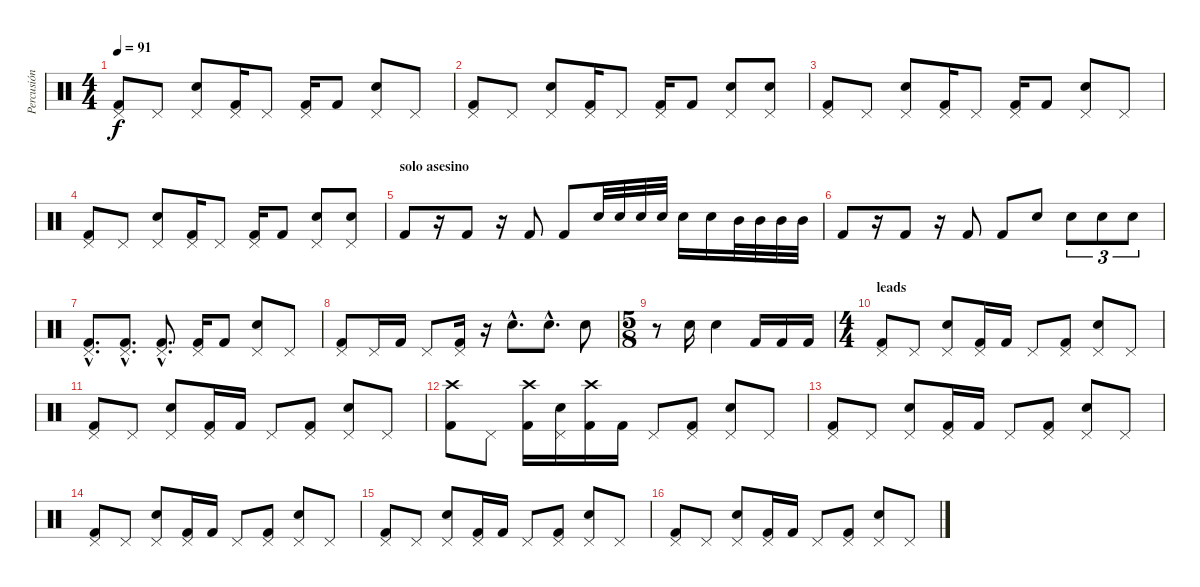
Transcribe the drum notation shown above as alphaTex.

\track ("Percusión" "Percusión") {instrument percussion}
\staff {score}
\articulation defaults
\ts (4 4)
\tempo 91
\clef neutral
\ks c
("Pedal Hi-Hat (hit)" "Kick (hit) 2").8{dy f} "Pedal Hi-Hat (hit)".8 ("Pedal Hi-Hat (hit)" "Electric Snare (hit)").8 ("Pedal Hi-Hat (hit)" "Kick (hit) 2").16 "Pedal Hi-Hat (hit)".8 ("Pedal Hi-Hat (hit)" "Kick (hit) 2").16 "Kick (hit) 2".8 ("Pedal Hi-Hat (hit)" "Electric Snare (hit)").8 "Pedal Hi-Hat (hit)".8 |
("Pedal Hi-Hat (hit)" "Kick (hit) 2").8 "Pedal Hi-Hat (hit)".8 ("Pedal Hi-Hat (hit)" "Electric Snare (hit)").8 ("Pedal Hi-Hat (hit)" "Kick (hit) 2").16 "Pedal Hi-Hat (hit)".8 ("Pedal Hi-Hat (hit)" "Kick (hit) 2").16 "Kick (hit) 2".8 ("Pedal Hi-Hat (hit)" "Electric Snare (hit)").8 ("Pedal Hi-Hat (hit)" "Electric Snare (hit)").8 |
("Pedal Hi-Hat (hit)" "Kick (hit) 2").8 "Pedal Hi-Hat (hit)".8 ("Pedal Hi-Hat (hit)" "Electric Snare (hit)").8 ("Pedal Hi-Hat (hit)" "Kick (hit) 2").16 "Pedal Hi-Hat (hit)".8 ("Pedal Hi-Hat (hit)" "Kick (hit) 2").16 "Kick (hit) 2".8 ("Pedal Hi-Hat (hit)" "Electric Snare (hit)").8 "Pedal Hi-Hat (hit)".8 |
("Pedal Hi-Hat (hit)" "Kick (hit) 2").8 "Pedal Hi-Hat (hit)".8 ("Pedal Hi-Hat (hit)" "Electric Snare (hit)").8 ("Pedal Hi-Hat (hit)" "Kick (hit) 2").16 "Pedal Hi-Hat (hit)".8 ("Pedal Hi-Hat (hit)" "Kick (hit) 2").16 "Kick (hit) 2".8 ("Pedal Hi-Hat (hit)" "Electric Snare (hit)").8 ("Pedal Hi-Hat (hit)" "Electric Snare (hit)").8 |
\section ("" "solo asesino")
"Kick (hit) 2".8 r.16 "Kick (hit) 2".8 r.16 "Kick (hit) 2".8 "Kick (hit) 2".8 "Electric Snare (hit)".32 "Electric Snare (hit)".32 "Electric Snare (hit)".32 "Electric Snare (hit)".32 "Electric Snare (hit)".16 "Electric Snare (hit)".16 "Mid Tom (hit)".32 "Mid Tom (hit)".32 "Mid Tom (hit)".32 "Mid Tom (hit)".32 |
"Kick (hit) 2".8 r.16 "Kick (hit) 2".8 r.16 "Kick (hit) 2".8 "Kick (hit) 2".8 "Electric Snare (hit)".8 "Electric Snare (hit)".8{tu (3 2)} "Electric Snare (hit)".8{tu (3 2)} "Electric Snare (hit)".8{tu (3 2)} |
("Pedal Hi-Hat (hit)"{hac} "Kick (hit) 2"{hac}).8{d} ("Pedal Hi-Hat (hit)"{hac} "Kick (hit) 2"{hac}).8{d} ("Pedal Hi-Hat (hit)"{hac} "Kick (hit) 2"{hac}).8{d} ("Pedal Hi-Hat (hit)" "Kick (hit) 2").16 "Kick (hit) 2".8 ("Pedal Hi-Hat (hit)" "Electric Snare (hit)").8 "Pedal Hi-Hat (hit)".8 |
("Pedal Hi-Hat (hit)" "Kick (hit) 2").8 "Pedal Hi-Hat (hit)".16 "Kick (hit) 2".16 "Pedal Hi-Hat (hit)".8 ("Pedal Hi-Hat (hit)" "Kick (hit) 2").16 r.16 "Electric Snare (hit)"{hac}.8{d} "Electric Snare (hit)"{hac}.8{d} "Electric Snare (hit)".8 |
\ts (5 8)
r.8 "Electric Snare (hit)".16 "Electric Snare (hit)".4 "Kick (hit) 2".16 "Kick (hit) 2".16 "Kick (hit) 2".16 |
\ts (4 4)
\section ("" "leads ")
("Pedal Hi-Hat (hit)" "Kick (hit) 2").8 "Pedal Hi-Hat (hit)".8 ("Pedal Hi-Hat (hit)" "Electric Snare (hit)").8 ("Pedal Hi-Hat (hit)" "Kick (hit) 2").16 "Kick (hit) 2".16 "Pedal Hi-Hat (hit)".8 ("Pedal Hi-Hat (hit)" "Kick (hit) 2").8 ("Pedal Hi-Hat (hit)" "Electric Snare (hit)").8 "Pedal Hi-Hat (hit)".8 |
("Pedal Hi-Hat (hit)" "Kick (hit) 2").8 "Pedal Hi-Hat (hit)".8 ("Pedal Hi-Hat (hit)" "Electric Snare (hit)").8 ("Pedal Hi-Hat (hit)" "Kick (hit) 2").16 "Kick (hit) 2".16 "Pedal Hi-Hat (hit)".8 ("Pedal Hi-Hat (hit)" "Kick (hit) 2").8 ("Pedal Hi-Hat (hit)" "Electric Snare (hit)").8 "Pedal Hi-Hat (hit)".8 |
("Crash high (hit)" "Kick (hit) 2").8 "Pedal Hi-Hat (hit)".8 ("Crash high (hit)" "Kick (hit) 2").16 ("Pedal Hi-Hat (hit)" "Electric Snare (hit)").16 ("Crash high (hit)" "Kick (hit) 2").16 "Kick (hit) 2".16 "Pedal Hi-Hat (hit)".8 ("Pedal Hi-Hat (hit)" "Kick (hit) 2").8 ("Pedal Hi-Hat (hit)" "Electric Snare (hit)").8 "Pedal Hi-Hat (hit)".8 |
("Pedal Hi-Hat (hit)" "Kick (hit) 2").8 "Pedal Hi-Hat (hit)".8 ("Pedal Hi-Hat (hit)" "Electric Snare (hit)").8 ("Pedal Hi-Hat (hit)" "Kick (hit) 2").16 "Kick (hit) 2".16 "Pedal Hi-Hat (hit)".8 ("Pedal Hi-Hat (hit)" "Kick (hit) 2").8 ("Pedal Hi-Hat (hit)" "Electric Snare (hit)").8 "Pedal Hi-Hat (hit)".8 |
("Pedal Hi-Hat (hit)" "Kick (hit) 2").8 "Pedal Hi-Hat (hit)".8 ("Pedal Hi-Hat (hit)" "Electric Snare (hit)").8 ("Pedal Hi-Hat (hit)" "Kick (hit) 2").16 "Kick (hit) 2".16 "Pedal Hi-Hat (hit)".8 ("Pedal Hi-Hat (hit)" "Kick (hit) 2").8 ("Pedal Hi-Hat (hit)" "Electric Snare (hit)").8 "Pedal Hi-Hat (hit)".8 |
("Pedal Hi-Hat (hit)" "Kick (hit) 2").8 "Pedal Hi-Hat (hit)".8 ("Pedal Hi-Hat (hit)" "Electric Snare (hit)").8 ("Pedal Hi-Hat (hit)" "Kick (hit) 2").16 "Kick (hit) 2".16 "Pedal Hi-Hat (hit)".8 ("Pedal Hi-Hat (hit)" "Kick (hit) 2").8 ("Pedal Hi-Hat (hit)" "Electric Snare (hit)").8 "Pedal Hi-Hat (hit)".8 |
("Pedal Hi-Hat (hit)" "Kick (hit) 2").8 "Pedal Hi-Hat (hit)".8 ("Pedal Hi-Hat (hit)" "Electric Snare (hit)").8 ("Pedal Hi-Hat (hit)" "Kick (hit) 2").16 "Kick (hit) 2".16 "Pedal Hi-Hat (hit)".8 ("Pedal Hi-Hat (hit)" "Kick (hit) 2").8 ("Pedal Hi-Hat (hit)" "Electric Snare (hit)").8 "Pedal Hi-Hat (hit)".8
